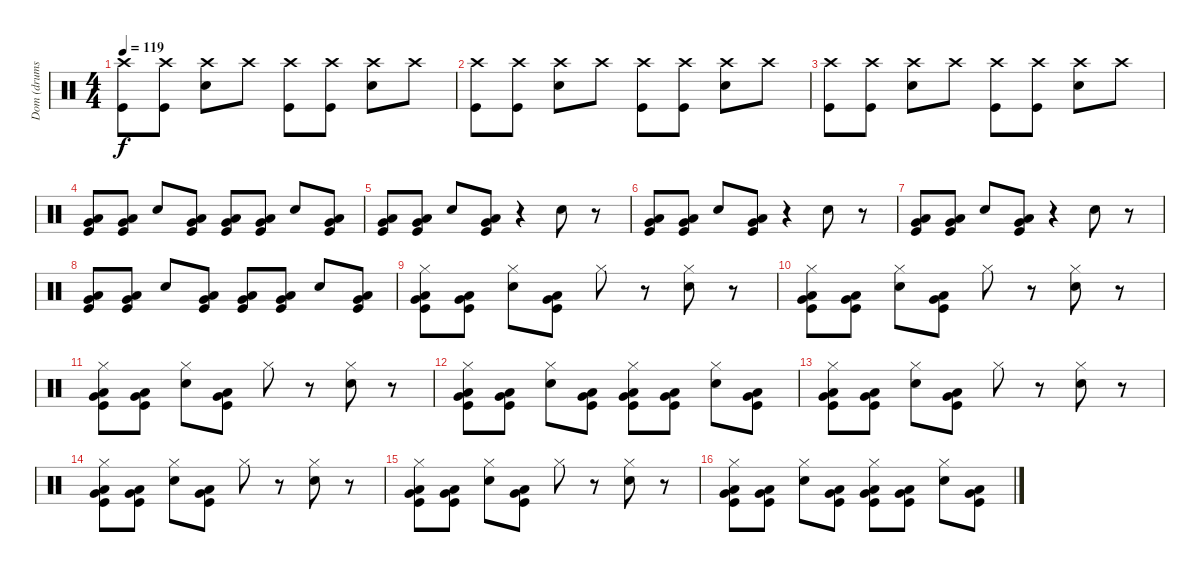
\track ("Dom (drums)" "Dom (drums") {instrument percussion}
\staff {score}
\articulation defaults
\ts (4 4)
\tempo 119
\clef neutral
\ks c
("Crash high (hit)" "Kick (hit)").8{dy f} ("Crash high (hit)" "Kick (hit)").8 ("Crash high (hit)" "Snare (hit) 2").8 "Crash high (hit)".8 ("Crash high (hit)" "Kick (hit)").8 ("Crash high (hit)" "Kick (hit)").8 ("Crash high (hit)" "Snare (hit) 2").8 "Crash high (hit)".8 |
("Crash high (hit)" "Kick (hit)").8 ("Crash high (hit)" "Kick (hit)").8 ("Crash high (hit)" "Snare (hit) 2").8 "Crash high (hit)".8 ("Crash high (hit)" "Kick (hit)").8 ("Crash high (hit)" "Kick (hit)").8 ("Crash high (hit)" "Snare (hit) 2").8 "Crash high (hit)".8 |
("Crash high (hit)" "Kick (hit)").8 ("Crash high (hit)" "Kick (hit)").8 ("Crash high (hit)" "Snare (hit) 2").8 "Crash high (hit)".8 ("Crash high (hit)" "Kick (hit)").8 ("Crash high (hit)" "Kick (hit)").8 ("Crash high (hit)" "Snare (hit) 2").8 "Crash high (hit)".8 |
("Low Tom (hit)" "Very Low Tom (hit)" "Kick (hit)").8 ("Low Tom (hit)" "Very Low Tom (hit)" "Kick (hit)").8 "Snare (hit) 2".8 ("Low Tom (hit)" "Very Low Tom (hit)" "Kick (hit)").8 ("Low Tom (hit)" "Very Low Tom (hit)" "Kick (hit)").8 ("Low Tom (hit)" "Very Low Tom (hit)" "Kick (hit)").8 "Snare (hit) 2".8 ("Low Tom (hit)" "Very Low Tom (hit)" "Kick (hit)").8 |
("Low Tom (hit)" "Very Low Tom (hit)" "Kick (hit)").8 ("Low Tom (hit)" "Very Low Tom (hit)" "Kick (hit)").8 "Snare (hit) 2".8 ("Low Tom (hit)" "Very Low Tom (hit)" "Kick (hit)").8 r.4 "Snare (hit) 2".8 r.8 |
("Low Tom (hit)" "Very Low Tom (hit)" "Kick (hit)").8 ("Low Tom (hit)" "Very Low Tom (hit)" "Kick (hit)").8 "Snare (hit) 2".8 ("Low Tom (hit)" "Very Low Tom (hit)" "Kick (hit)").8 r.4 "Snare (hit) 2".8 r.8 |
("Low Tom (hit)" "Very Low Tom (hit)" "Kick (hit)").8 ("Low Tom (hit)" "Very Low Tom (hit)" "Kick (hit)").8 "Snare (hit) 2".8 ("Low Tom (hit)" "Very Low Tom (hit)" "Kick (hit)").8 r.4 "Snare (hit) 2".8 r.8 |
("Low Tom (hit)" "Very Low Tom (hit)" "Kick (hit)").8 ("Low Tom (hit)" "Very Low Tom (hit)" "Kick (hit)").8 "Snare (hit) 2".8 ("Low Tom (hit)" "Very Low Tom (hit)" "Kick (hit)").8 ("Low Tom (hit)" "Very Low Tom (hit)" "Kick (hit)").8 ("Low Tom (hit)" "Very Low Tom (hit)" "Kick (hit)").8 "Snare (hit) 2".8 ("Low Tom (hit)" "Very Low Tom (hit)" "Kick (hit)").8 |
("Hi-Hat (closed)" "Low Tom (hit)" "Very Low Tom (hit)" "Kick (hit)").8 ("Low Tom (hit)" "Very Low Tom (hit)" "Kick (hit)").8 ("Hi-Hat (closed)" "Snare (hit) 2").8 ("Low Tom (hit)" "Very Low Tom (hit)" "Kick (hit)").8 "Hi-Hat (closed)".8 r.8 ("Hi-Hat (closed)" "Snare (hit) 2").8 r.8 |
("Hi-Hat (closed)" "Low Tom (hit)" "Very Low Tom (hit)" "Kick (hit)").8 ("Low Tom (hit)" "Very Low Tom (hit)" "Kick (hit)").8 ("Hi-Hat (closed)" "Snare (hit) 2").8 ("Low Tom (hit)" "Very Low Tom (hit)" "Kick (hit)").8 "Hi-Hat (closed)".8 r.8 ("Hi-Hat (closed)" "Snare (hit) 2").8 r.8 |
("Hi-Hat (closed)" "Low Tom (hit)" "Very Low Tom (hit)" "Kick (hit)").8 ("Low Tom (hit)" "Very Low Tom (hit)" "Kick (hit)").8 ("Hi-Hat (closed)" "Snare (hit) 2").8 ("Low Tom (hit)" "Very Low Tom (hit)" "Kick (hit)").8 "Hi-Hat (closed)".8 r.8 ("Hi-Hat (closed)" "Snare (hit) 2").8 r.8 |
("Hi-Hat (closed)" "Low Tom (hit)" "Very Low Tom (hit)" "Kick (hit)").8 ("Low Tom (hit)" "Very Low Tom (hit)" "Kick (hit)").8 ("Hi-Hat (closed)" "Snare (hit) 2").8 ("Low Tom (hit)" "Very Low Tom (hit)" "Kick (hit)").8 ("Hi-Hat (closed)" "Low Tom (hit)" "Very Low Tom (hit)" "Kick (hit)").8 ("Low Tom (hit)" "Very Low Tom (hit)" "Kick (hit)").8 ("Hi-Hat (closed)" "Snare (hit) 2").8 ("Low Tom (hit)" "Very Low Tom (hit)" "Kick (hit)").8 |
("Hi-Hat (closed)" "Low Tom (hit)" "Very Low Tom (hit)" "Kick (hit)").8 ("Low Tom (hit)" "Very Low Tom (hit)" "Kick (hit)").8 ("Hi-Hat (closed)" "Snare (hit) 2").8 ("Low Tom (hit)" "Very Low Tom (hit)" "Kick (hit)").8 "Hi-Hat (closed)".8 r.8 ("Hi-Hat (closed)" "Snare (hit) 2").8 r.8 |
("Hi-Hat (closed)" "Low Tom (hit)" "Very Low Tom (hit)" "Kick (hit)").8 ("Low Tom (hit)" "Very Low Tom (hit)" "Kick (hit)").8 ("Hi-Hat (closed)" "Snare (hit) 2").8 ("Low Tom (hit)" "Very Low Tom (hit)" "Kick (hit)").8 "Hi-Hat (closed)".8 r.8 ("Hi-Hat (closed)" "Snare (hit) 2").8 r.8 |
("Hi-Hat (closed)" "Low Tom (hit)" "Very Low Tom (hit)" "Kick (hit)").8 ("Low Tom (hit)" "Very Low Tom (hit)" "Kick (hit)").8 ("Hi-Hat (closed)" "Snare (hit) 2").8 ("Low Tom (hit)" "Very Low Tom (hit)" "Kick (hit)").8 "Hi-Hat (closed)".8 r.8 ("Hi-Hat (closed)" "Snare (hit) 2").8 r.8 |
("Hi-Hat (closed)" "Low Tom (hit)" "Very Low Tom (hit)" "Kick (hit)").8 ("Low Tom (hit)" "Very Low Tom (hit)" "Kick (hit)").8 ("Hi-Hat (closed)" "Snare (hit) 2").8 ("Low Tom (hit)" "Very Low Tom (hit)" "Kick (hit)").8 ("Hi-Hat (closed)" "Low Tom (hit)" "Very Low Tom (hit)" "Kick (hit)").8 ("Low Tom (hit)" "Very Low Tom (hit)" "Kick (hit)").8 ("Hi-Hat (closed)" "Snare (hit) 2").8 ("Low Tom (hit)" "Very Low Tom (hit)" "Kick (hit)").8
